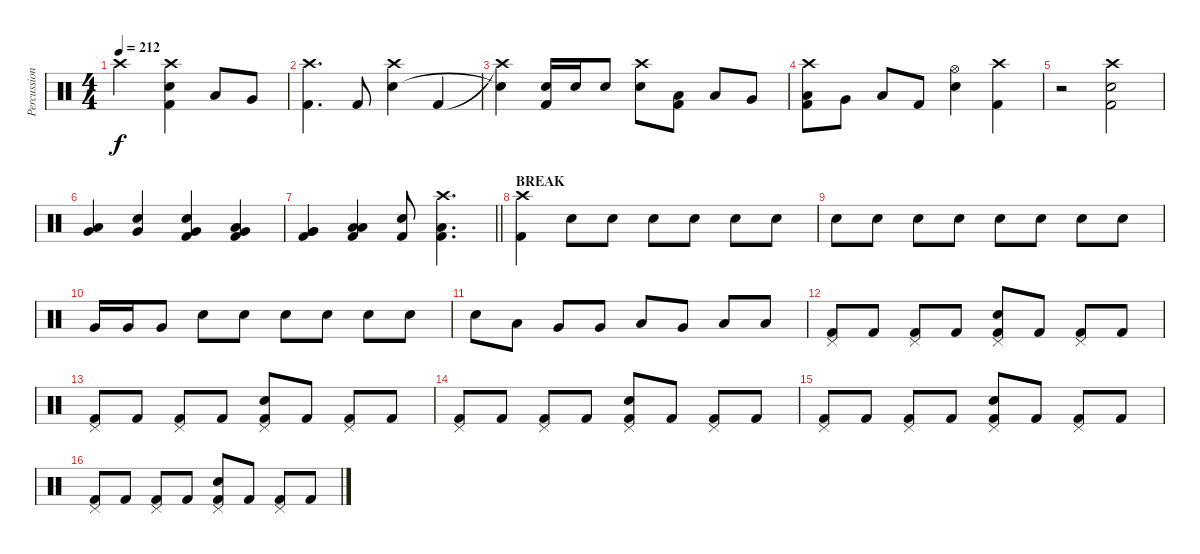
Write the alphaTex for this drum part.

\track ("Percussions" "Percussion") {instrument percussion}
\staff {score}
\articulation defaults
\ts (4 4)
\tempo 212
\clef neutral
\ks c "Crash high (hit)".2{dy f}
("Crash high (hit)" "Snare (hit) 2" "Kick (hit) 2").4 "Low Tom (hit)".8 "Very Low Tom (hit)".8 |
("Crash high (hit)" "Kick (hit) 2").4{d} "Kick (hit) 2".8 ("Crash high (hit)" "Snare (hit) 2").4 "Kick (hit) 2".4 |
("Crash high (hit)"{t} "Snare (hit)"{t}).4 ("Snare (hit) 2" "Kick (hit) 2").16 "Snare (hit) 2".16 "Snare (hit) 2".8 ("Crash high (hit)" "Snare (hit) 2").8 ("Low Tom (hit)" "Kick (hit) 2").8 "Low Tom (hit)".8 "Very Low Tom (hit)".8 |
("Crash high (hit)" "Low Tom (hit)" "Kick (hit) 2").8 "Very Low Tom (hit)".8 "Low Floor Tom (hit)".8 "Kick (hit) 2".8 ("Hi-Hat (open)" "Snare (hit) 2").4 ("Crash high (hit)" "Kick (hit) 2").4 |
r.2 ("Crash high (hit)" "Snare (hit) 2" "Kick (hit) 2").2 |
("Low Tom (hit)" "Very Low Tom (hit)").4 ("Snare (hit) 2" "Very Low Tom (hit)").4 ("Snare (hit) 2" "Very Low Tom (hit)" "Kick (hit) 2").4 ("Low Tom (hit)" "Very Low Tom (hit)" "Kick (hit) 2").4 |
\barLineRight lightlight
("Very Low Tom (hit)" "Very Low Tom (hit)" "Kick (hit) 2").4 ("Low Floor Tom (hit)" "Low Floor Tom (hit)" "Kick (hit) 2").4 ("Snare (hit) 2" "Kick (hit) 2").8 ("Crash high (hit)" "Low Floor Tom (hit)" "Kick (hit) 2").4{d} |
\section ("" "BREAK")
("Crash high (hit)" "Kick (hit) 2").4 "Snare (hit) 2".8{volume 7} "Snare (hit) 2".8{volume 16} "Snare (hit) 2".8 "Snare (hit) 2".8 "Snare (hit) 2".8 "Snare (hit) 2".8 |
"Snare (hit) 2".8 "Snare (hit) 2".8 "Snare (hit) 2".8 "Snare (hit) 2".8 "Snare (hit) 2".8 "Snare (hit) 2".8 "Snare (hit) 2".8 "Snare (hit) 2".8 |
"Very Low Tom (hit)".16 "Very Low Tom (hit)".16 "Very Low Tom (hit)".8 "Snare (hit) 2".8 "Snare (hit) 2".8 "Snare (hit) 2".8 "Snare (hit) 2".8 "Snare (hit) 2".8 "Snare (hit) 2".8 |
"Snare (hit) 2".8{volume 13} "Low Tom (hit)".8 "Very Low Tom (hit)".8 "Very Low Tom (hit)".8 "Low Floor Tom (hit)".8 "Very Low Tom (hit)".8 "Low Floor Tom (hit)".8 "Low Floor Tom (hit)".8 |
("Pedal Hi-Hat (hit)" "Kick (hit) 2").8 "Kick (hit) 2".8 ("Pedal Hi-Hat (hit)" "Kick (hit) 2").8 "Kick (hit) 2".8 ("Pedal Hi-Hat (hit)" "Snare (hit) 2" "Kick (hit) 2").8 "Kick (hit) 2".8 ("Pedal Hi-Hat (hit)" "Kick (hit) 2").8 "Kick (hit) 2".8 |
("Pedal Hi-Hat (hit)" "Kick (hit) 2").8 "Kick (hit) 2".8 ("Pedal Hi-Hat (hit)" "Kick (hit) 2").8 "Kick (hit) 2".8 ("Pedal Hi-Hat (hit)" "Snare (hit) 2" "Kick (hit) 2").8 "Kick (hit) 2".8 ("Pedal Hi-Hat (hit)" "Kick (hit) 2").8 "Kick (hit) 2".8 |
("Pedal Hi-Hat (hit)" "Kick (hit) 2").8 "Kick (hit) 2".8 ("Pedal Hi-Hat (hit)" "Kick (hit) 2").8 "Kick (hit) 2".8 ("Pedal Hi-Hat (hit)" "Snare (hit) 2" "Kick (hit) 2").8 "Kick (hit) 2".8 ("Pedal Hi-Hat (hit)" "Kick (hit) 2").8 "Kick (hit) 2".8 |
("Pedal Hi-Hat (hit)" "Kick (hit) 2").8 "Kick (hit) 2".8 ("Pedal Hi-Hat (hit)" "Kick (hit) 2").8 "Kick (hit) 2".8 ("Pedal Hi-Hat (hit)" "Snare (hit) 2" "Kick (hit) 2").8 "Kick (hit) 2".8 ("Pedal Hi-Hat (hit)" "Kick (hit) 2").8 "Kick (hit) 2".8 |
("Pedal Hi-Hat (hit)" "Kick (hit) 2").8 "Kick (hit) 2".8 ("Pedal Hi-Hat (hit)" "Kick (hit) 2").8 "Kick (hit) 2".8 ("Pedal Hi-Hat (hit)" "Snare (hit) 2" "Kick (hit) 2").8 "Kick (hit) 2".8 ("Pedal Hi-Hat (hit)" "Kick (hit) 2").8 "Kick (hit) 2".8
